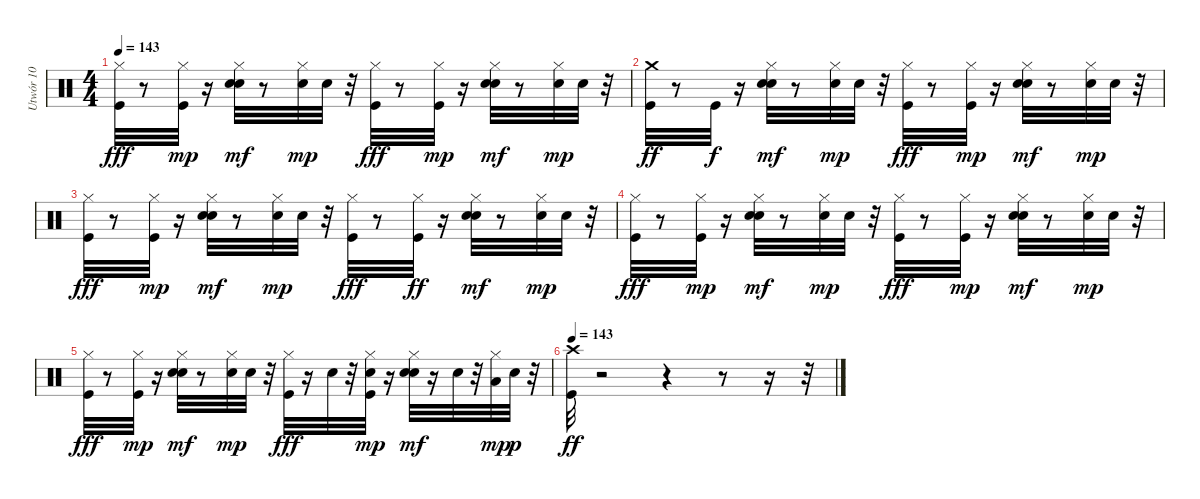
\track ("Utwór 10" "Utwór 10") {instrument percussion}
\staff {score}
\articulation defaults
\ts (4 4)
\tempo 143
\clef neutral
\ks c
("Hi-Hat (closed)" "Kick (hit)").32{dy fff} r.8 ("Kick (hit)" "Hi-Hat (closed)").32{dy mp} r.16 ("Hi-Hat (closed)" "Snare (hit) 2" "Hand Clap (hit)").32{dy mf} r.8 ("Snare (hit) 2" "Hi-Hat (closed)").32{dy mp} "Hand Clap (hit)".32 r.32 ("Kick (hit)" "Hi-Hat (closed)").32{dy fff} r.8 ("Kick (hit)" "Hi-Hat (closed)").32{dy mp} r.16 ("Hi-Hat (closed)" "Snare (hit) 2" "Hand Clap (hit)").32{dy mf} r.8 ("Snare (hit) 2" "Hi-Hat (closed)").32{dy mp} "Hand Clap (hit)".32 r.32 |
("Kick (hit)" "Crash medium (hit)").32{dy ff} r.8 "Kick (hit)".32{dy f} r.16 ("Snare (hit) 2" "Hi-Hat (closed)" "Hand Clap (hit)").32{dy mf} r.8 ("Hi-Hat (closed)" "Snare (hit) 2").32{dy mp} "Hand Clap (hit)".32 r.32 ("Kick (hit)" "Hi-Hat (closed)").32{dy fff} r.8 ("Kick (hit)" "Hi-Hat (closed)").32{dy mp} r.16 ("Hi-Hat (closed)" "Snare (hit) 2" "Hand Clap (hit)").32{dy mf} r.8 ("Hi-Hat (closed)" "Snare (hit) 2").32{dy mp} "Hand Clap (hit)".32 r.32 |
("Hi-Hat (closed)" "Kick (hit)").32{dy fff} r.8 ("Hi-Hat (closed)" "Kick (hit)").32{dy mp} r.16 ("Hi-Hat (closed)" "Snare (hit) 2" "Hand Clap (hit)").32{dy mf} r.8 ("Snare (hit) 2" "Hi-Hat (closed)").32{dy mp} "Hand Clap (hit)".32 r.32 ("Kick (hit)" "Hi-Hat (closed)").32{dy fff} r.8 ("Hi-Hat (closed)" "Kick (hit)").32{dy ff} r.16 ("Snare (hit) 2" "Hi-Hat (closed)" "Hand Clap (hit)").32{dy mf} r.8 ("Hi-Hat (closed)" "Snare (hit) 2").32{dy mp} "Hand Clap (hit)".32 r.32 |
("Hi-Hat (closed)" "Kick (hit)").32{dy fff} r.8 ("Hi-Hat (closed)" "Kick (hit)").32{dy mp} r.16 ("Snare (hit) 2" "Hi-Hat (closed)" "Hand Clap (hit)").32{dy mf} r.8 ("Hi-Hat (closed)" "Snare (hit) 2").32{dy mp} "Hand Clap (hit)".32 r.32 ("Hi-Hat (closed)" "Kick (hit)").32{dy fff} r.8 ("Kick (hit)" "Hi-Hat (closed)").32{dy mp} r.16 ("Hi-Hat (closed)" "Snare (hit) 2" "Hand Clap (hit)").32{dy mf} r.8 ("Snare (hit) 2" "Hi-Hat (closed)").32{dy mp} "Hand Clap (hit)".32 r.32 |
("Hi-Hat (closed)" "Kick (hit)").32{dy fff} r.8 ("Kick (hit)" "Hi-Hat (closed)").32{dy mp} r.16 ("Snare (hit) 2" "Hi-Hat (closed)" "Hand Clap (hit)").32{dy mf} r.8 ("Snare (hit) 2" "Hi-Hat (closed)").32{dy mp} "Hand Clap (hit)".32 r.32 ("Hi-Hat (closed)" "Kick (hit)").32{dy fff} r.16 "Snare (hit) 2".32 r.32 ("Kick (hit)" "Hi-Hat (closed)" "Snare (hit) 2").32{dy mp} r.16 ("Hi-Hat (closed)" "Snare (hit) 2" "Hand Clap (hit)").32{dy mf} r.16 "Snare (hit) 2".32 r.32 ("Low Floor Tom (hit)" "Hi-Hat (closed)").32{dy mp} "Hand Clap (hit)".32{dy p} r.32 |
\tempo 143
("Kick (hit)" "Crash high (hit)").32{dy ff} r.2 r.4 r.8 r.16 r.32
